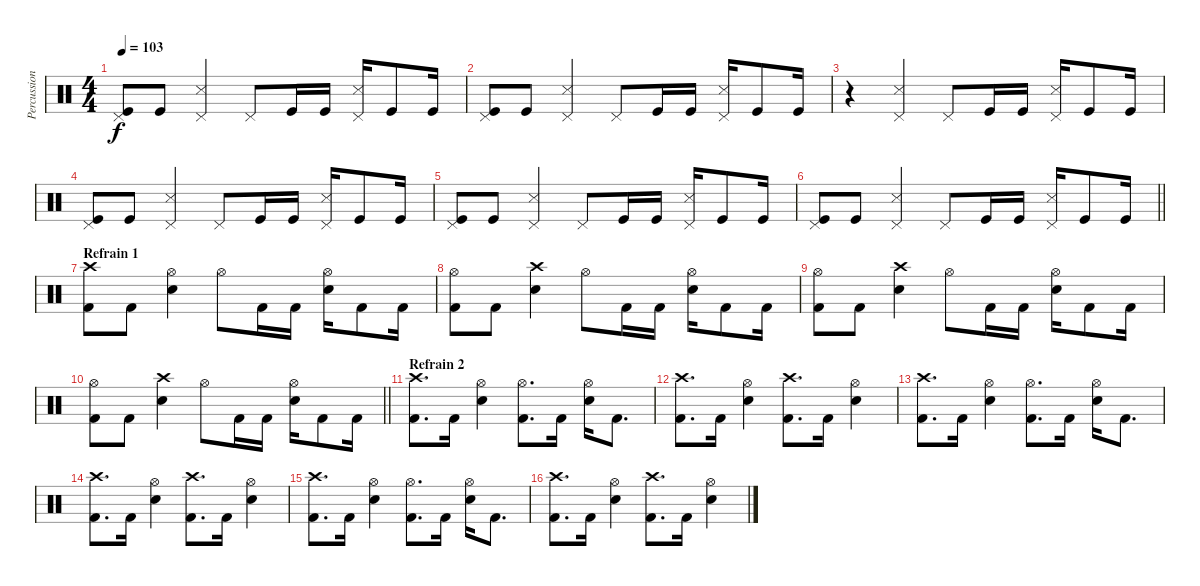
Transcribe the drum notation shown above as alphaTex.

\track ("Percussions" "Percussion") {instrument percussion}
\staff {score}
\articulation defaults
\ts (4 4)
\tempo 103
\clef neutral
\ks c
("Pedal Hi-Hat (hit)" "Kick (hit)").8{dy f} "Kick (hit)".8 ("Pedal Hi-Hat (hit)" "Snare (side stick) 3").4 "Pedal Hi-Hat (hit)".8 "Kick (hit)".16 "Kick (hit)".16 ("Pedal Hi-Hat (hit)" "Snare (side stick) 3").16 "Kick (hit)".8 "Kick (hit)".16 |
("Pedal Hi-Hat (hit)" "Kick (hit)").8 "Kick (hit)".8 ("Pedal Hi-Hat (hit)" "Snare (side stick) 3").4 "Pedal Hi-Hat (hit)".8 "Kick (hit)".16 "Kick (hit)".16 ("Pedal Hi-Hat (hit)" "Snare (side stick) 3").16 "Kick (hit)".8 "Kick (hit)".16 |
r.4 ("Pedal Hi-Hat (hit)" "Snare (side stick) 3").4 "Pedal Hi-Hat (hit)".8 "Kick (hit)".16 "Kick (hit)".16 ("Pedal Hi-Hat (hit)" "Snare (side stick) 3").16 "Kick (hit)".8 "Kick (hit)".16 |
("Pedal Hi-Hat (hit)" "Kick (hit)").8 "Kick (hit)".8 ("Pedal Hi-Hat (hit)" "Snare (side stick) 3").4 "Pedal Hi-Hat (hit)".8 "Kick (hit)".16 "Kick (hit)".16 ("Pedal Hi-Hat (hit)" "Snare (side stick) 3").16 "Kick (hit)".8 "Kick (hit)".16 |
("Pedal Hi-Hat (hit)" "Kick (hit)").8 "Kick (hit)".8 ("Pedal Hi-Hat (hit)" "Snare (side stick) 3").4 "Pedal Hi-Hat (hit)".8 "Kick (hit)".16 "Kick (hit)".16 ("Pedal Hi-Hat (hit)" "Snare (side stick) 3").16 "Kick (hit)".8 "Kick (hit)".16 |
\barLineRight lightlight
("Pedal Hi-Hat (hit)" "Kick (hit)").8 "Kick (hit)".8 ("Pedal Hi-Hat (hit)" "Snare (side stick) 3").4 "Pedal Hi-Hat (hit)".8 "Kick (hit)".16 "Kick (hit)".16 ("Pedal Hi-Hat (hit)" "Snare (side stick) 3").16 "Kick (hit)".8 "Kick (hit)".16 |
\section ("" "Refrain 1")
("Crash high (hit)" "Kick (hit) 2").8 "Kick (hit) 2".8 ("Hi-Hat (open)" "Electric Snare (hit)").4 "Hi-Hat (open)".8 "Kick (hit) 2".16 "Kick (hit) 2".16 ("Hi-Hat (open)" "Electric Snare (hit)").16 "Kick (hit) 2".8 "Kick (hit) 2".16 |
("Hi-Hat (open)" "Kick (hit) 2").8 "Kick (hit) 2".8 ("Crash high (hit)" "Electric Snare (hit)").4 "Hi-Hat (open)".8 "Kick (hit) 2".16 "Kick (hit) 2".16 ("Hi-Hat (open)" "Electric Snare (hit)").16 "Kick (hit) 2".8 "Kick (hit) 2".16 |
("Hi-Hat (open)" "Kick (hit) 2").8 "Kick (hit) 2".8 ("Crash high (hit)" "Electric Snare (hit)").4 "Hi-Hat (open)".8 "Kick (hit) 2".16 "Kick (hit) 2".16 ("Hi-Hat (open)" "Electric Snare (hit)").16 "Kick (hit) 2".8 "Kick (hit) 2".16 |
\barLineRight lightlight
("Hi-Hat (open)" "Kick (hit) 2").8 "Kick (hit) 2".8 ("Crash high (hit)" "Electric Snare (hit)").4 "Hi-Hat (open)".8 "Kick (hit) 2".16 "Kick (hit) 2".16 ("Hi-Hat (open)" "Electric Snare (hit)").16 "Kick (hit) 2".8 "Kick (hit) 2".16 |
\section ("" "Refrain 2")
("Crash high (hit)" "Kick (hit) 2").8{d} "Kick (hit) 2".16 ("Hi-Hat (open)" "Electric Snare (hit)").4 ("Hi-Hat (open)" "Kick (hit) 2").8{d} "Kick (hit) 2".16 ("Hi-Hat (open)" "Electric Snare (hit)").16 "Kick (hit) 2".8{d} |
("Crash high (hit)" "Kick (hit) 2").8{d} "Kick (hit) 2".16 ("Hi-Hat (open)" "Electric Snare (hit)").4 ("Crash high (hit)" "Kick (hit) 2").8{d} "Kick (hit) 2".16 ("Hi-Hat (open)" "Electric Snare (hit)").4 |
("Crash high (hit)" "Kick (hit) 2").8{d} "Kick (hit) 2".16 ("Hi-Hat (open)" "Electric Snare (hit)").4 ("Hi-Hat (open)" "Kick (hit) 2").8{d} "Kick (hit) 2".16 ("Hi-Hat (open)" "Electric Snare (hit)").16 "Kick (hit) 2".8{d} |
("Crash high (hit)" "Kick (hit) 2").8{d} "Kick (hit) 2".16 ("Hi-Hat (open)" "Electric Snare (hit)").4 ("Crash high (hit)" "Kick (hit) 2").8{d} "Kick (hit) 2".16 ("Hi-Hat (open)" "Electric Snare (hit)").4 |
("Crash high (hit)" "Kick (hit) 2").8{d} "Kick (hit) 2".16 ("Hi-Hat (open)" "Electric Snare (hit)").4 ("Hi-Hat (open)" "Kick (hit) 2").8{d} "Kick (hit) 2".16 ("Hi-Hat (open)" "Electric Snare (hit)").16 "Kick (hit) 2".8{d} |
("Crash high (hit)" "Kick (hit) 2").8{d} "Kick (hit) 2".16 ("Hi-Hat (open)" "Electric Snare (hit)").4 ("Crash high (hit)" "Kick (hit) 2").8{d} "Kick (hit) 2".16 ("Hi-Hat (open)" "Electric Snare (hit)").4
